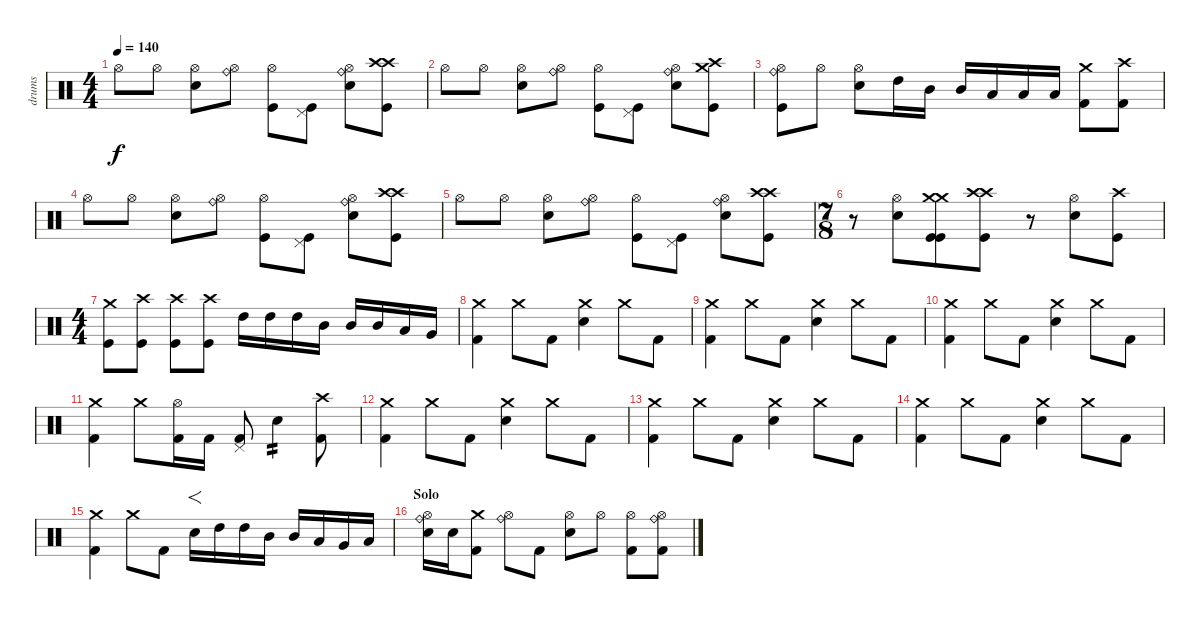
\track ("drums" "drums") {instrument percussion}
\staff {score}
\articulation defaults
\ts (4 4)
\tempo 140
\clef neutral
\ks c "Hi-Hat (open)".8{dy f} "Hi-Hat (open)".8
("Hi-Hat (open)" "Snare (hit) 2").8 ("Ride (bell)" "Hi-Hat (open)").8 ("Hi-Hat (open)" "Kick (hit)").8 ("Pedal Hi-Hat (hit)" "Kick (hit)").8 ("Ride (bell)" "Hi-Hat (open)" "Snare (hit) 2").8 ("Kick (hit)" "Crash high (hit)" "Crash high (hit)").8 |
"Hi-Hat (open)".8 "Hi-Hat (open)".8 ("Hi-Hat (open)" "Snare (hit) 2").8 ("Ride (bell)" "Hi-Hat (open)").8 ("Hi-Hat (open)" "Kick (hit)").8 ("Pedal Hi-Hat (hit)" "Kick (hit)").8 ("Ride (bell)" "Hi-Hat (open)" "Snare (hit) 2").8 ("Kick (hit)" "Crash medium (hit)" "Crash high (hit)").8 |
("Ride (bell)" "Kick (hit)" "Hi-Hat (open)").8 "Hi-Hat (open)".8 ("Snare (hit) 2" "Hi-Hat (open)").8 "High Tom (hit)".16 "Mid Tom (hit)".16 "Mid Tom (hit)".16 "Low Tom (hit)".16 "Low Tom (hit)".16 "Low Floor Tom (hit)".16 ("Crash medium (hit)" "Kick (hit) 2").8 ("Kick (hit) 2" "Crash high (hit)").8 |
"Hi-Hat (open)".8 "Hi-Hat (open)".8 ("Hi-Hat (open)" "Snare (hit) 2").8 ("Ride (bell)" "Hi-Hat (open)").8 ("Hi-Hat (open)" "Kick (hit)").8 ("Pedal Hi-Hat (hit)" "Kick (hit)").8 ("Ride (bell)" "Hi-Hat (open)" "Snare (hit) 2").8 ("Kick (hit)" "Crash high (hit)" "Crash high (hit)").8 |
"Hi-Hat (open)".8 "Hi-Hat (open)".8 ("Hi-Hat (open)" "Snare (hit) 2").8 ("Ride (bell)" "Hi-Hat (open)").8 ("Hi-Hat (open)" "Kick (hit)").8 ("Pedal Hi-Hat (hit)" "Kick (hit)").8 ("Ride (bell)" "Hi-Hat (open)" "Snare (hit) 2").8 ("Kick (hit)" "Crash high (hit)" "Crash high (hit)").8 |
\ts (7 8)
r.8 ("Hi-Hat (open)" "Snare (hit) 2").8 ("Crash medium (hit)" "Crash medium (hit)" "Kick (hit)" "Kick (hit)").8 ("Crash high (hit)" "Crash high (hit)" "Kick (hit)").8 r.8 ("Hi-Hat (open)" "Snare (hit) 2").8 ("Crash high (hit)" "Kick (hit)").8 |
\ts (4 4)
("Crash medium (hit)" "Kick (hit)").8 ("Crash high (hit)" "Kick (hit)").8 ("Crash high (hit)" "Kick (hit)").8 ("Crash high (hit)" "Kick (hit)").8 "High Tom (hit)".16 "High Tom (hit)".16 "High Tom (hit)".16 "Mid Tom (hit)".16 "Mid Tom (hit)".16 "Mid Tom (hit)".16 "Low Tom (hit)".16 "Very Low Tom (hit)".16 |
("Kick (hit) 2" "Crash medium (hit)").4 "Crash medium (hit)".8 "Kick (hit) 2".8 ("Snare (hit) 2" "Crash medium (hit)").4 "Crash medium (hit)".8 "Kick (hit) 2".8 |
("Kick (hit) 2" "Crash medium (hit)").4 "Crash medium (hit)".8 "Kick (hit) 2".8 ("Snare (hit) 2" "Crash medium (hit)").4 "Crash medium (hit)".8 "Kick (hit) 2".8 |
("Kick (hit) 2" "Crash medium (hit)").4 "Crash medium (hit)".8 "Kick (hit) 2".8 ("Snare (hit) 2" "Crash medium (hit)").4 "Crash medium (hit)".8 "Kick (hit) 2".8 |
("Kick (hit) 2" "Crash medium (hit)").4 "Crash medium (hit)".8 ("Hi-Hat (open)" "Kick (hit) 2").16 "Kick (hit) 2".16 ("Pedal Hi-Hat (hit)" "Kick (hit) 2").8 "Snare (hit) 2".4{tp 2} ("Crash high (hit)" "Kick (hit) 2").8 |
("Kick (hit) 2" "Crash medium (hit)").4 "Crash medium (hit)".8 "Kick (hit) 2".8 ("Snare (hit) 2" "Crash medium (hit)").4 "Crash medium (hit)".8 "Kick (hit) 2".8 |
("Kick (hit) 2" "Crash medium (hit)").4 "Crash medium (hit)".8 "Kick (hit) 2".8 ("Snare (hit) 2" "Crash medium (hit)").4 "Crash medium (hit)".8 "Kick (hit) 2".8 |
("Kick (hit) 2" "Crash medium (hit)").4 "Crash medium (hit)".8 "Kick (hit) 2".8 ("Snare (hit) 2" "Crash medium (hit)").4 "Crash medium (hit)".8 "Kick (hit) 2".8 |
("Kick (hit) 2" "Crash medium (hit)").4 "Crash medium (hit)".8 "Kick (hit) 2".8 "Snare (hit) 2"{tr (38 16)}.16{f} "High Tom (hit)".16 "High Tom (hit)".16 "Mid Tom (hit)".16 "Mid Tom (hit)".16 "Low Tom (hit)".16 "Very Low Tom (hit)".16 "Low Floor Tom (hit)".16 |
\section ("" "Solo")
("Ride (bell)" "Hi-Hat (open)" "Snare (hit) 2").16 "Snare (hit) 2".16 ("Crash medium (hit)" "Kick (hit) 2").8 ("Ride (bell)" "Hi-Hat (open)").8 "Kick (hit) 2".8 ("Hi-Hat (open)" "Snare (hit) 2").8 "Hi-Hat (open)".8 ("Hi-Hat (open)" "Kick (hit) 2").8 ("Ride (bell)" "Hi-Hat (open)" "Kick (hit) 2").8
